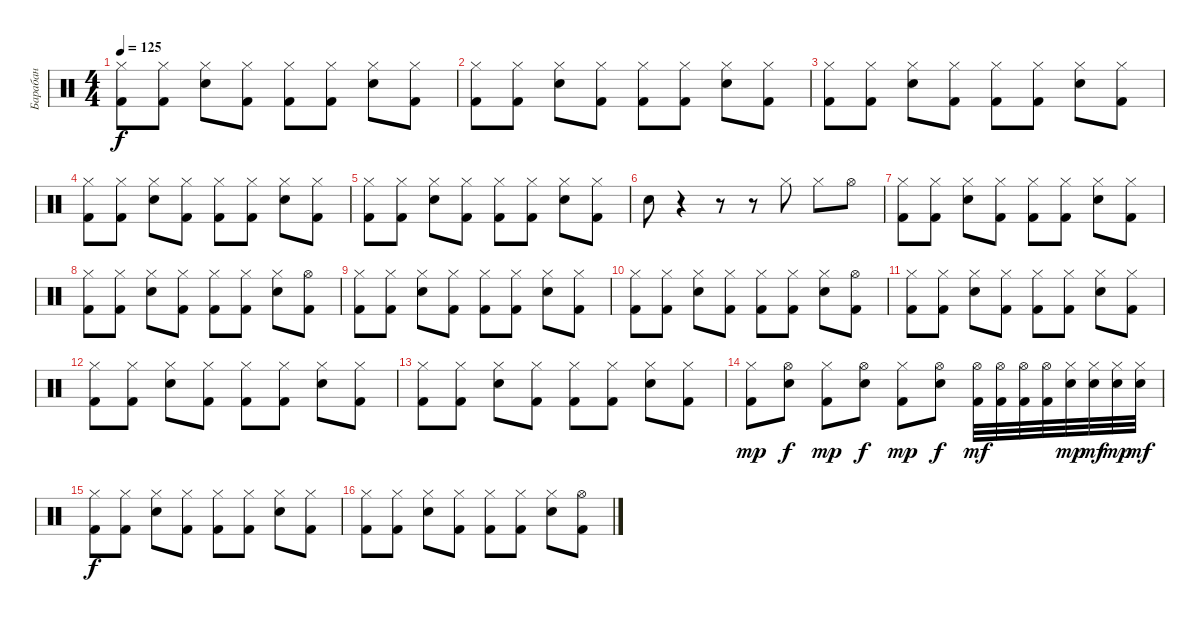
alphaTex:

\track ("Барабан" "Барабан") {instrument percussion}
\staff {score}
\articulation defaults
\ts (4 4)
\tempo 125
\clef neutral
\ks c
("Kick (hit) 2" "Hi-Hat (closed)").8{dy f} ("Kick (hit) 2" "Hi-Hat (closed)").8 ("Electric Snare (hit)" "Hi-Hat (closed)").8 ("Kick (hit) 2" "Hi-Hat (closed)").8 ("Kick (hit) 2" "Hi-Hat (closed)").8 ("Kick (hit) 2" "Hi-Hat (closed)").8 ("Electric Snare (hit)" "Hi-Hat (closed)").8 ("Kick (hit) 2" "Hi-Hat (closed)").8 |
("Kick (hit) 2" "Hi-Hat (closed)").8 ("Kick (hit) 2" "Hi-Hat (closed)").8 ("Electric Snare (hit)" "Hi-Hat (closed)").8 ("Kick (hit) 2" "Hi-Hat (closed)").8 ("Kick (hit) 2" "Hi-Hat (closed)").8 ("Kick (hit) 2" "Hi-Hat (closed)").8 ("Electric Snare (hit)" "Hi-Hat (closed)").8 ("Kick (hit) 2" "Hi-Hat (closed)").8 |
("Kick (hit) 2" "Hi-Hat (closed)").8 ("Kick (hit) 2" "Hi-Hat (closed)").8 ("Electric Snare (hit)" "Hi-Hat (closed)").8 ("Kick (hit) 2" "Hi-Hat (closed)").8 ("Kick (hit) 2" "Hi-Hat (closed)").8 ("Kick (hit) 2" "Hi-Hat (closed)").8 ("Electric Snare (hit)" "Hi-Hat (closed)").8 ("Kick (hit) 2" "Hi-Hat (closed)").8 |
("Kick (hit) 2" "Hi-Hat (closed)").8 ("Kick (hit) 2" "Hi-Hat (closed)").8 ("Electric Snare (hit)" "Hi-Hat (closed)").8 ("Kick (hit) 2" "Hi-Hat (closed)").8 ("Kick (hit) 2" "Hi-Hat (closed)").8 ("Kick (hit) 2" "Hi-Hat (closed)").8 ("Electric Snare (hit)" "Hi-Hat (closed)").8 ("Kick (hit) 2" "Hi-Hat (closed)").8 |
("Kick (hit) 2" "Hi-Hat (closed)").8 ("Kick (hit) 2" "Hi-Hat (closed)").8 ("Electric Snare (hit)" "Hi-Hat (closed)").8 ("Kick (hit) 2" "Hi-Hat (closed)").8 ("Kick (hit) 2" "Hi-Hat (closed)").8 ("Kick (hit) 2" "Hi-Hat (closed)").8 ("Electric Snare (hit)" "Hi-Hat (closed)").8 ("Kick (hit) 2" "Hi-Hat (closed)").8 |
"Electric Snare (hit)".8 r.4 r.8 r.8 "Hi-Hat (closed)".8 "Hi-Hat (closed)".8 "Hi-Hat (open)".8 |
("Kick (hit) 2" "Hi-Hat (closed)").8 ("Kick (hit) 2" "Hi-Hat (closed)").8 ("Electric Snare (hit)" "Hi-Hat (closed)").8 ("Kick (hit) 2" "Hi-Hat (closed)").8 ("Kick (hit) 2" "Hi-Hat (closed)").8 ("Kick (hit) 2" "Hi-Hat (closed)").8 ("Electric Snare (hit)" "Hi-Hat (closed)").8 ("Kick (hit) 2" "Hi-Hat (closed)").8 |
("Kick (hit) 2" "Hi-Hat (closed)").8 ("Kick (hit) 2" "Hi-Hat (closed)").8 ("Electric Snare (hit)" "Hi-Hat (closed)").8 ("Kick (hit) 2" "Hi-Hat (closed)").8 ("Kick (hit) 2" "Hi-Hat (closed)").8 ("Kick (hit) 2" "Hi-Hat (closed)").8 ("Electric Snare (hit)" "Hi-Hat (closed)").8 ("Kick (hit) 2" "Hi-Hat (open)").8 |
("Kick (hit) 2" "Hi-Hat (closed)").8 ("Kick (hit) 2" "Hi-Hat (closed)").8 ("Electric Snare (hit)" "Hi-Hat (closed)").8 ("Kick (hit) 2" "Hi-Hat (closed)").8 ("Kick (hit) 2" "Hi-Hat (closed)").8 ("Kick (hit) 2" "Hi-Hat (closed)").8 ("Electric Snare (hit)" "Hi-Hat (closed)").8 ("Kick (hit) 2" "Hi-Hat (closed)").8 |
("Kick (hit) 2" "Hi-Hat (closed)").8 ("Kick (hit) 2" "Hi-Hat (closed)").8 ("Electric Snare (hit)" "Hi-Hat (closed)").8 ("Kick (hit) 2" "Hi-Hat (closed)").8 ("Kick (hit) 2" "Hi-Hat (closed)").8 ("Kick (hit) 2" "Hi-Hat (closed)").8 ("Electric Snare (hit)" "Hi-Hat (closed)").8 ("Kick (hit) 2" "Hi-Hat (open)").8 |
("Kick (hit) 2" "Hi-Hat (closed)").8 ("Kick (hit) 2" "Hi-Hat (closed)").8 ("Electric Snare (hit)" "Hi-Hat (closed)").8 ("Kick (hit) 2" "Hi-Hat (closed)").8 ("Kick (hit) 2" "Hi-Hat (closed)").8 ("Kick (hit) 2" "Hi-Hat (closed)").8 ("Electric Snare (hit)" "Hi-Hat (closed)").8 ("Kick (hit) 2" "Hi-Hat (closed)").8 |
("Kick (hit) 2" "Hi-Hat (closed)").8 ("Kick (hit) 2" "Hi-Hat (closed)").8 ("Electric Snare (hit)" "Hi-Hat (closed)").8 ("Kick (hit) 2" "Hi-Hat (closed)").8 ("Kick (hit) 2" "Hi-Hat (closed)").8 ("Kick (hit) 2" "Hi-Hat (closed)").8 ("Electric Snare (hit)" "Hi-Hat (closed)").8 ("Kick (hit) 2" "Hi-Hat (closed)").8 |
("Kick (hit) 2" "Hi-Hat (closed)").8 ("Kick (hit) 2" "Hi-Hat (closed)").8 ("Electric Snare (hit)" "Hi-Hat (closed)").8 ("Kick (hit) 2" "Hi-Hat (closed)").8 ("Kick (hit) 2" "Hi-Hat (closed)").8 ("Kick (hit) 2" "Hi-Hat (closed)").8 ("Electric Snare (hit)" "Hi-Hat (closed)").8 ("Kick (hit) 2" "Hi-Hat (closed)").8 |
("Kick (hit) 2" "Hi-Hat (closed)").8{dy mp} ("Electric Snare (hit)" "Hi-Hat (open)").8{dy f} ("Kick (hit) 2" "Hi-Hat (closed)").8{dy mp} ("Electric Snare (hit)" "Hi-Hat (open)").8{dy f} ("Kick (hit) 2" "Hi-Hat (closed)").8{dy mp} ("Electric Snare (hit)" "Hi-Hat (open)").8{dy f} ("Hi-Hat (open)" "Kick (hit) 2").32{dy mf} ("Hi-Hat (open)" "Kick (hit) 2").32 ("Hi-Hat (open)" "Kick (hit) 2").32 ("Hi-Hat (open)" "Kick (hit) 2").32 ("Hi-Hat (closed)" "Snare (hit) 2").32{dy mp} ("Hi-Hat (closed)" "Snare (hit) 2").32{dy mf} ("Hi-Hat (closed)" "Snare (hit) 2").32{dy mp} ("Hi-Hat (closed)" "Snare (hit) 2").32{dy mf} |
("Kick (hit) 2" "Hi-Hat (closed)").8{dy f} ("Kick (hit) 2" "Hi-Hat (closed)").8 ("Electric Snare (hit)" "Hi-Hat (closed)").8 ("Kick (hit) 2" "Hi-Hat (closed)").8 ("Kick (hit) 2" "Hi-Hat (closed)").8 ("Kick (hit) 2" "Hi-Hat (closed)").8 ("Electric Snare (hit)" "Hi-Hat (closed)").8 ("Kick (hit) 2" "Hi-Hat (closed)").8 |
("Kick (hit) 2" "Hi-Hat (closed)").8 ("Kick (hit) 2" "Hi-Hat (closed)").8 ("Electric Snare (hit)" "Hi-Hat (closed)").8 ("Kick (hit) 2" "Hi-Hat (closed)").8 ("Kick (hit) 2" "Hi-Hat (closed)").8 ("Kick (hit) 2" "Hi-Hat (closed)").8 ("Electric Snare (hit)" "Hi-Hat (closed)").8 ("Kick (hit) 2" "Hi-Hat (open)").8
